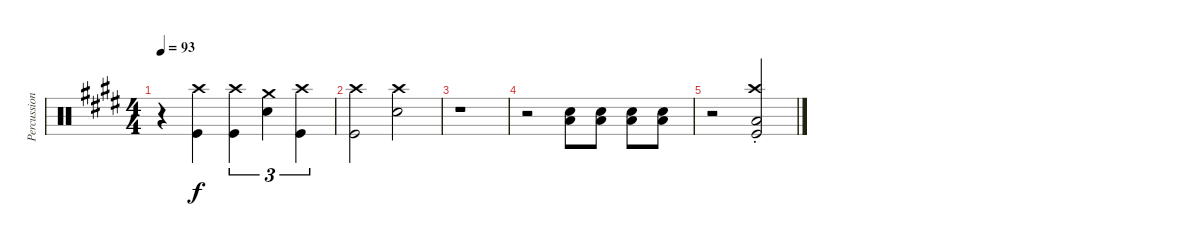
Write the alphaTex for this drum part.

\track ("Percussion" "Percussion") {instrument percussion}
\staff {score}
\articulation defaults
\ts (4 4)
\tempo 93
\clef neutral
\ks c#minor
r.4{dy f} ("Kick (hit)" "Crash high (hit)").4 ("Kick (hit)" "Crash high (hit)").4{tu (3 2)} ("Snare (hit) 2" "Crash medium (hit)").4{tu (3 2)} ("Kick (hit)" "Crash high (hit)").4{tu (3 2)} |
("Kick (hit)" "Crash high (hit)").2 ("Snare (hit) 2" "Crash high (hit)").2 |
r.1 |
r.2 ("Snare (hit) 2" "Low Floor Tom (hit)").8 ("Snare (hit) 2" "Low Floor Tom (hit)").8 ("Snare (hit) 2" "Low Floor Tom (hit)").8 ("Snare (hit) 2" "Low Floor Tom (hit)").8 |
r.2 ("Kick (hit)"{st} "Low Floor Tom (hit)"{st} "Crash high (hit)"{st}).2
